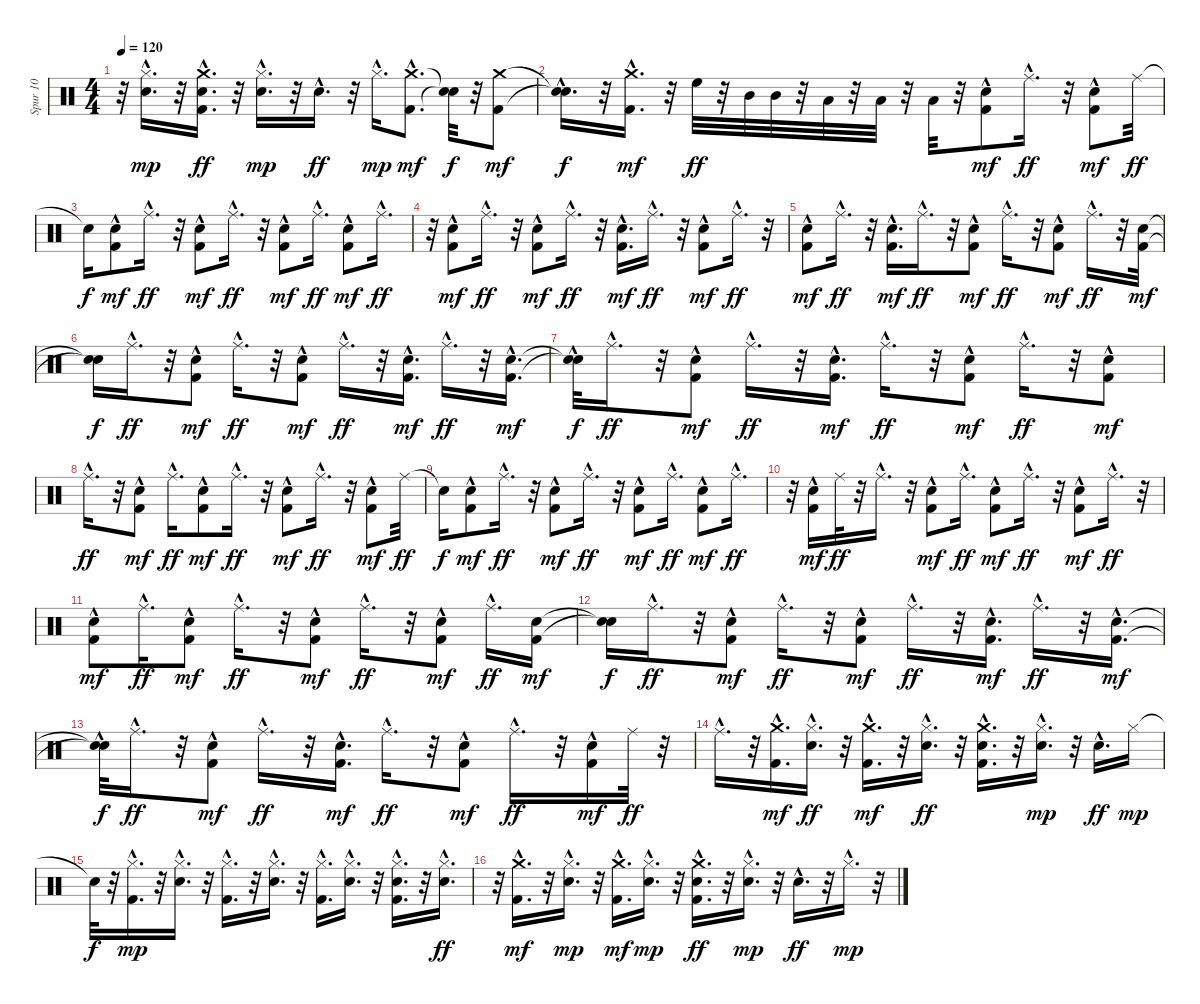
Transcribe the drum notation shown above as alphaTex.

\track ("Spur 10" "Spur 10") {instrument percussion}
\staff {score}
\articulation defaults
\ts (4 4)
\tempo 120
\clef neutral
\ks c
r.32{dy mf} ("Snare (hit) 2"{hac} "Hi-Hat (closed)"{hac}).16{d dy mp} r.32 ("Crash medium (hit)"{hac} "Snare (hit) 2"{hac} "Kick (hit) 2"{hac}).16{d dy ff} r.32 ("Snare (hit) 2"{hac} "Hi-Hat (closed)"{hac}).16{d dy mp} r.32 "Snare (hit) 2"{hac}.16{d dy ff} r.32 "Hi-Hat (closed)"{hac}.16{d dy mp} ("Crash medium (hit)"{hac} "Kick (hit) 2"{hac}).8{d dy mf} ("Snare (hit)"{t} "Snare (hit)"{t}).32{dy f} r.32 ("Crash medium (hit)" "Kick (hit) 2").8{dy mf} |
("Snare (hit)"{hac t} "Snare (hit)"{hac t}).16{d dy f} r.32 ("Crash medium (hit)"{hac} "Kick (hit) 2"{hac}).16{d dy mf} r.32 "High Floor Tom (hit)".32{dy ff} r.32 "Mid Tom (hit)".32 "Mid Tom (hit)".32 r.32 "Low Tom (hit)".32 r.32 "Low Tom (hit)".32 r.32 "Low Floor Tom (hit)".32 r.32 ("Kick (hit) 2"{hac} "Hand Clap (hit)"{hac}).8{dy mf} "Ride (middle)"{hac}.16{d dy ff} r.32 ("Hand Clap (hit)"{hac} "Kick (hit) 2"{hac}).8{dy mf} "Ride (middle)".32{dy ff} |
"Snare (hit)"{t}.16{dy f} ("Hand Clap (hit)"{hac} "Kick (hit) 2"{hac}).8{dy mf} "Ride (middle)"{hac}.16{d dy ff} r.32 ("Hand Clap (hit)"{hac} "Kick (hit) 2"{hac}).8{dy mf} "Ride (middle)"{hac}.16{d dy ff} r.32 ("Kick (hit) 2"{hac} "Hand Clap (hit)"{hac}).8{dy mf} "Ride (middle)"{hac}.16{d dy ff} ("Hand Clap (hit)"{hac} "Kick (hit) 2"{hac}).8{dy mf} "Ride (middle)"{hac}.16{d dy ff} |
r.32 ("Hand Clap (hit)"{hac} "Kick (hit) 2"{hac}).8{dy mf} "Ride (middle)"{hac}.16{d dy ff} r.32 ("Hand Clap (hit)"{hac} "Kick (hit) 2"{hac}).8{dy mf} "Ride (middle)"{hac}.16{d dy ff} r.32 ("Kick (hit) 2"{hac} "Hand Clap (hit)"{hac}).16{d dy mf} "Ride (middle)"{hac}.16{d dy ff} r.32 ("Hand Clap (hit)"{hac} "Kick (hit) 2"{hac}).8{dy mf} "Ride (middle)"{hac}.16{d dy ff} r.32 |
("Hand Clap (hit)"{hac} "Kick (hit) 2"{hac}).8{dy mf} "Ride (middle)"{hac}.16{d dy ff} r.32 ("Hand Clap (hit)"{hac} "Kick (hit) 2"{hac}).16{d dy mf} "Ride (middle)"{hac}.16{d dy ff} r.32 ("Kick (hit) 2"{hac} "Hand Clap (hit)"{hac}).8{dy mf} "Ride (middle)"{hac}.16{d dy ff} r.32 ("Hand Clap (hit)"{hac} "Kick (hit) 2"{hac}).8{dy mf} "Ride (middle)"{hac}.16{d dy ff} r.32 ("Hand Clap (hit)" "Kick (hit) 2").32{dy mf} |
("Snare (hit)"{t} "Snare (hit)"{t}).16{dy f} "Ride (middle)"{hac}.16{d dy ff} r.32 ("Hand Clap (hit)"{hac} "Kick (hit) 2"{hac}).8{dy mf} "Ride (middle)"{hac}.16{d dy ff} r.32 ("Kick (hit) 2"{hac} "Hand Clap (hit)"{hac}).8{dy mf} "Ride (middle)"{hac}.16{d dy ff} r.32 ("Hand Clap (hit)"{hac} "Kick (hit) 2"{hac}).16{d dy mf} "Ride (middle)"{hac}.16{d dy ff} r.32 ("Hand Clap (hit)"{hac} "Kick (hit) 2"{hac}).16{d dy mf} |
("Snare (hit)"{hac t} "Snare (hit)"{hac t}).32{dy f} "Ride (middle)"{hac}.16{d dy ff} r.32 ("Hand Clap (hit)"{hac} "Kick (hit) 2"{hac}).8{dy mf} "Ride (middle)"{hac}.16{d dy ff} r.32 ("Kick (hit) 2"{hac} "Hand Clap (hit)"{hac}).16{d dy mf} "Ride (middle)"{hac}.16{d dy ff} r.32 ("Hand Clap (hit)"{hac} "Kick (hit) 2"{hac}).8{dy mf} "Ride (middle)"{hac}.16{d dy ff} r.32 ("Hand Clap (hit)"{hac} "Kick (hit) 2"{hac}).8{dy mf} |
"Ride (middle)"{hac}.16{d dy ff} r.32 ("Hand Clap (hit)"{hac} "Kick (hit) 2"{hac}).8{dy mf} "Ride (middle)"{hac}.16{d dy ff} ("Kick (hit) 2"{hac} "Hand Clap (hit)"{hac}).8{dy mf} "Ride (middle)"{hac}.16{d dy ff} r.32 ("Hand Clap (hit)"{hac} "Kick (hit) 2"{hac}).8{dy mf} "Ride (middle)"{hac}.16{d dy ff} r.32 ("Hand Clap (hit)"{hac} "Kick (hit) 2"{hac}).8{dy mf} "Ride (middle)".32{dy ff} |
"Snare (hit)"{t}.16{dy f} ("Hand Clap (hit)"{hac} "Kick (hit) 2"{hac}).8{dy mf} "Ride (middle)"{hac}.16{d dy ff} r.32 ("Kick (hit) 2"{hac} "Hand Clap (hit)"{hac}).8{dy mf} "Ride (middle)"{hac}.16{d dy ff} r.32 ("Hand Clap (hit)"{hac} "Kick (hit) 2"{hac}).8{dy mf} "Ride (middle)"{hac}.16{d dy ff} ("Hand Clap (hit)"{hac} "Kick (hit) 2"{hac}).8{dy mf} "Ride (middle)"{hac}.16{d dy ff} |
r.32 ("Hand Clap (hit)"{hac} "Kick (hit) 2"{hac}).16{dy mf} "Ride (middle)".32{dy ff} r.32 "Ride (middle)"{hac}.16{d} r.32 ("Kick (hit) 2"{hac} "Hand Clap (hit)"{hac}).8{dy mf} "Ride (middle)"{hac}.16{d dy ff} ("Hand Clap (hit)"{hac} "Kick (hit) 2"{hac}).8{dy mf} "Ride (middle)"{hac}.16{d dy ff} r.32 ("Hand Clap (hit)"{hac} "Kick (hit) 2"{hac}).8{dy mf} "Ride (middle)"{hac}.16{d dy ff} r.32 |
("Hand Clap (hit)"{hac} "Kick (hit) 2"{hac}).8{dy mf} "Ride (middle)"{hac}.16{d dy ff} ("Kick (hit) 2"{hac} "Hand Clap (hit)"{hac}).8{dy mf} "Ride (middle)"{hac}.16{d dy ff} r.32 ("Hand Clap (hit)"{hac} "Kick (hit) 2"{hac}).8{dy mf} "Ride (middle)"{hac}.16{d dy ff} r.32 ("Hand Clap (hit)"{hac} "Kick (hit) 2"{hac}).8{dy mf} "Ride (middle)"{hac}.16{d dy ff} ("Hand Clap (hit)" "Kick (hit) 2").16{dy mf} |
("Snare (hit)"{t} "Snare (hit)"{t}).16{dy f} "Ride (middle)"{hac}.16{d dy ff} r.32 ("Kick (hit) 2"{hac} "Hand Clap (hit)"{hac}).8{dy mf} "Ride (middle)"{hac}.16{d dy ff} r.32 ("Hand Clap (hit)"{hac} "Kick (hit) 2"{hac}).8{dy mf} "Ride (middle)"{hac}.16{d dy ff} r.32 ("Hand Clap (hit)"{hac} "Kick (hit) 2"{hac}).16{d dy mf} "Ride (middle)"{hac}.16{d dy ff} r.32 ("Hand Clap (hit)"{hac} "Kick (hit) 2"{hac}).16{d dy mf} |
("Snare (hit)"{hac t} "Snare (hit)"{hac t}).32{dy f} "Ride (middle)"{hac}.16{d dy ff} r.32 ("Kick (hit) 2"{hac} "Hand Clap (hit)"{hac}).8{dy mf} "Ride (middle)"{hac}.16{d dy ff} r.32 ("Hand Clap (hit)"{hac} "Kick (hit) 2"{hac}).16{d dy mf} "Ride (middle)"{hac}.16{d dy ff} r.32 ("Hand Clap (hit)"{hac} "Kick (hit) 2"{hac}).8{dy mf} "Ride (middle)"{hac}.16{d dy ff} r.32 ("Hand Clap (hit)"{hac} "Kick (hit) 2"{hac}).16{dy mf} "Ride (middle)".32{dy ff} r.32 |
"Ride (middle)"{hac}.16{d} r.32 ("Crash medium (hit)"{hac} "Kick (hit) 2"{hac}).16{d dy mf} ("Hi-Hat (closed)"{hac} "Snare (hit) 2"{hac}).16{d dy ff} r.32 ("Crash medium (hit)"{hac} "Kick (hit) 2"{hac}).16{d dy mf} r.32 ("Hi-Hat (closed)"{hac} "Snare (hit) 2"{hac}).16{d dy ff} r.32 ("Crash medium (hit)"{hac} "Kick (hit) 2"{hac} "Snare (hit) 2"{hac}).16{d} r.32 ("Snare (hit) 2"{hac} "Hi-Hat (closed)"{hac}).16{d dy mp} r.32 "Snare (hit) 2"{hac}.16{d dy ff} "Hi-Hat (closed)".16{dy mp} |
"Snare (hit)"{t}.32{dy f} r.32 ("Kick (hit) 2"{hac} "Hi-Hat (closed)"{hac}).16{d dy mp} r.32 ("Snare (hit) 2"{hac} "Hi-Hat (closed)"{hac}).16{d} r.32 ("Hi-Hat (closed)"{hac} "Kick (hit) 2"{hac}).16{d} r.32 ("Snare (hit) 2"{hac} "Hi-Hat (closed)"{hac}).16{d} r.32 ("Kick (hit) 2"{hac} "Hi-Hat (closed)"{hac}).16{d} ("Snare (hit) 2"{hac} "Hi-Hat (closed)"{hac}).16{d} r.32 ("Kick (hit) 2"{hac} "Snare (hit) 2"{hac} "Hi-Hat (closed)"{hac}).16{d} r.32 ("Hi-Hat (closed)"{hac} "Snare (hit) 2"{hac}).16{d dy ff} |
r.32 ("Kick (hit) 2"{hac} "Crash medium (hit)"{hac}).16{d dy mf} r.32 ("Snare (hit) 2"{hac} "Hi-Hat (closed)"{hac}).16{d dy mp} r.32 ("Crash medium (hit)"{hac} "Kick (hit) 2"{hac}).16{d dy mf} ("Snare (hit) 2"{hac} "Hi-Hat (closed)"{hac}).16{d dy mp} r.32 ("Crash medium (hit)"{hac} "Snare (hit) 2"{hac} "Kick (hit) 2"{hac}).16{d dy ff} r.32 ("Snare (hit) 2"{hac} "Hi-Hat (closed)"{hac}).16{d dy mp} r.32 "Snare (hit) 2"{hac}.16{d dy ff} r.32 "Hi-Hat (closed)"{hac}.16{d dy mp} r.32
